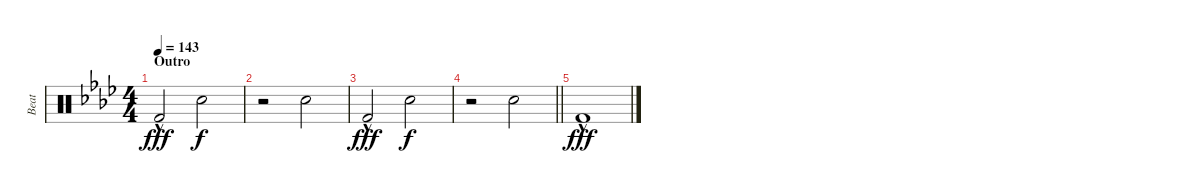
\track ("Beat" "Beat") {instrument percussion}
\staff {score}
\articulation defaults
\ts (4 4)
\section ("" "Outro")
\tempo 143
\clef neutral
\ks ab "Kick (hit) 2"{hac}.2{dy fff} "Hand Clap (hit)".2{dy f}
|
r.2 "Hand Clap (hit)".2 |
"Kick (hit) 2"{hac}.2{dy fff} "Hand Clap (hit)".2{dy f} |
\barLineRight lightlight
r.2 "Hand Clap (hit)".2 |
"Kick (hit) 2"{hac}.1{dy fff}
